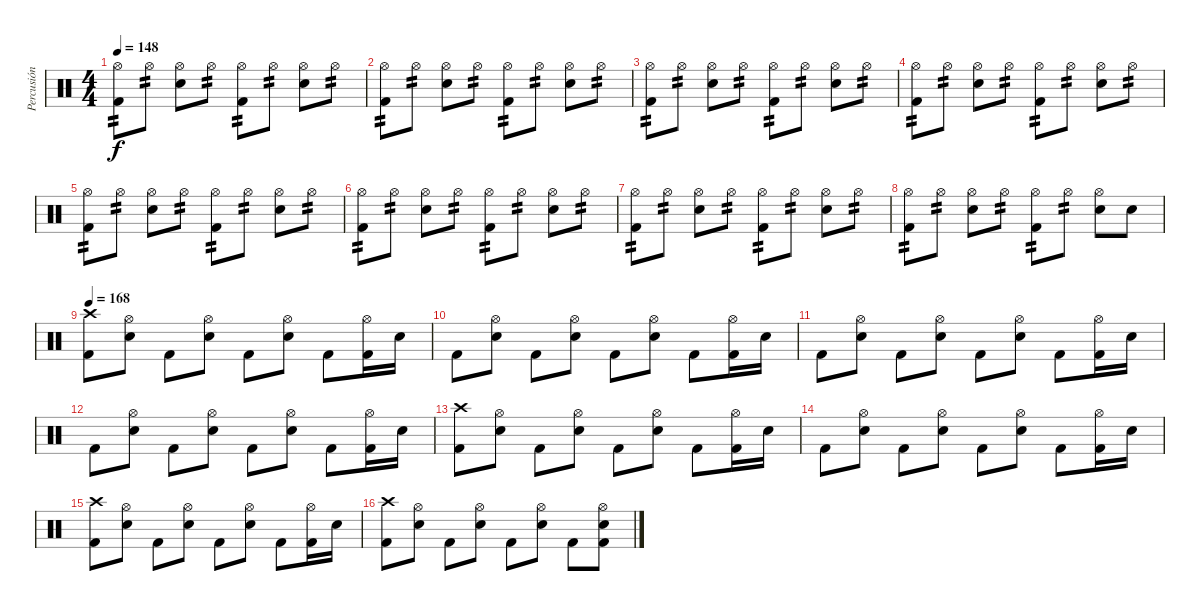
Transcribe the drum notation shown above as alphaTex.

\track ("Percusión" "Percusión") {instrument percussion}
\staff {score}
\articulation defaults
\ts (4 4)
\tempo 148
\clef neutral
\ks c
("Hi-Hat (open)" "Kick (hit) 2").8{tp 2 dy f} "Hi-Hat (open)".8{tp 2} ("Hi-Hat (open)" "Electric Snare (hit)").8 "Hi-Hat (open)".8{tp 2} ("Hi-Hat (open)" "Kick (hit) 2").8{tp 2} "Hi-Hat (open)".8{tp 2} ("Hi-Hat (open)" "Electric Snare (hit)").8 "Hi-Hat (open)".8{tp 2} |
("Hi-Hat (open)" "Kick (hit) 2").8{tp 2} "Hi-Hat (open)".8{tp 2} ("Hi-Hat (open)" "Electric Snare (hit)").8 "Hi-Hat (open)".8{tp 2} ("Hi-Hat (open)" "Kick (hit) 2").8{tp 2} "Hi-Hat (open)".8{tp 2} ("Hi-Hat (open)" "Electric Snare (hit)").8 "Hi-Hat (open)".8{tp 2} |
("Hi-Hat (open)" "Kick (hit) 2").8{tp 2} "Hi-Hat (open)".8{tp 2} ("Hi-Hat (open)" "Electric Snare (hit)").8 "Hi-Hat (open)".8{tp 2} ("Hi-Hat (open)" "Kick (hit) 2").8{tp 2} "Hi-Hat (open)".8{tp 2} ("Hi-Hat (open)" "Electric Snare (hit)").8 "Hi-Hat (open)".8{tp 2} |
("Hi-Hat (open)" "Kick (hit) 2").8{tp 2} "Hi-Hat (open)".8{tp 2} ("Hi-Hat (open)" "Electric Snare (hit)").8 "Hi-Hat (open)".8{tp 2} ("Hi-Hat (open)" "Kick (hit) 2").8{tp 2} "Hi-Hat (open)".8{tp 2} ("Hi-Hat (open)" "Electric Snare (hit)").8 "Hi-Hat (open)".8{tp 2} |
("Hi-Hat (open)" "Kick (hit) 2").8{tp 2} "Hi-Hat (open)".8{tp 2} ("Hi-Hat (open)" "Electric Snare (hit)").8 "Hi-Hat (open)".8{tp 2} ("Hi-Hat (open)" "Kick (hit) 2").8{tp 2} "Hi-Hat (open)".8{tp 2} ("Hi-Hat (open)" "Electric Snare (hit)").8 "Hi-Hat (open)".8{tp 2} |
("Hi-Hat (open)" "Kick (hit) 2").8{tp 2} "Hi-Hat (open)".8{tp 2} ("Hi-Hat (open)" "Electric Snare (hit)").8 "Hi-Hat (open)".8{tp 2} ("Hi-Hat (open)" "Kick (hit) 2").8{tp 2} "Hi-Hat (open)".8{tp 2} ("Hi-Hat (open)" "Electric Snare (hit)").8 "Hi-Hat (open)".8{tp 2} |
("Hi-Hat (open)" "Kick (hit) 2").8{tp 2} "Hi-Hat (open)".8{tp 2} ("Hi-Hat (open)" "Electric Snare (hit)").8 "Hi-Hat (open)".8{tp 2} ("Hi-Hat (open)" "Kick (hit) 2").8{tp 2} "Hi-Hat (open)".8{tp 2} ("Hi-Hat (open)" "Electric Snare (hit)").8 "Hi-Hat (open)".8{tp 2} |
("Hi-Hat (open)" "Kick (hit) 2").8{tp 2} "Hi-Hat (open)".8{tp 2} ("Hi-Hat (open)" "Electric Snare (hit)").8 "Hi-Hat (open)".8{tp 2} ("Hi-Hat (open)" "Kick (hit) 2").8{tp 2} "Hi-Hat (open)".8{tp 2} ("Hi-Hat (open)" "Electric Snare (hit)").8 "Electric Snare (hit)".8 |
\tempo 168
("Crash high (hit)" "Kick (hit) 2").8 ("Hi-Hat (open)" "Electric Snare (hit)").8 "Kick (hit) 2".8 ("Hi-Hat (open)" "Electric Snare (hit)").8 "Kick (hit) 2".8 ("Hi-Hat (open)" "Electric Snare (hit)").8 "Kick (hit) 2".8 ("Hi-Hat (open)" "Kick (hit) 2").16 "Electric Snare (hit)".16 |
"Kick (hit) 2".8 ("Hi-Hat (open)" "Electric Snare (hit)").8 "Kick (hit) 2".8 ("Hi-Hat (open)" "Electric Snare (hit)").8 "Kick (hit) 2".8 ("Hi-Hat (open)" "Electric Snare (hit)").8 "Kick (hit) 2".8 ("Hi-Hat (open)" "Kick (hit) 2").16 "Electric Snare (hit)".16 |
"Kick (hit) 2".8 ("Hi-Hat (open)" "Electric Snare (hit)").8 "Kick (hit) 2".8 ("Hi-Hat (open)" "Electric Snare (hit)").8 "Kick (hit) 2".8 ("Hi-Hat (open)" "Electric Snare (hit)").8 "Kick (hit) 2".8 ("Hi-Hat (open)" "Kick (hit) 2").16 "Electric Snare (hit)".16 |
"Kick (hit) 2".8 ("Hi-Hat (open)" "Electric Snare (hit)").8 "Kick (hit) 2".8 ("Hi-Hat (open)" "Electric Snare (hit)").8 "Kick (hit) 2".8 ("Hi-Hat (open)" "Electric Snare (hit)").8 "Kick (hit) 2".8 ("Hi-Hat (open)" "Kick (hit) 2").16 "Electric Snare (hit)".16 |
("Crash high (hit)" "Kick (hit) 2").8 ("Hi-Hat (open)" "Electric Snare (hit)").8 "Kick (hit) 2".8 ("Hi-Hat (open)" "Electric Snare (hit)").8 "Kick (hit) 2".8 ("Hi-Hat (open)" "Electric Snare (hit)").8 "Kick (hit) 2".8 ("Hi-Hat (open)" "Kick (hit) 2").16 "Electric Snare (hit)".16 |
"Kick (hit) 2".8 ("Hi-Hat (open)" "Electric Snare (hit)").8 "Kick (hit) 2".8 ("Hi-Hat (open)" "Electric Snare (hit)").8 "Kick (hit) 2".8 ("Hi-Hat (open)" "Electric Snare (hit)").8 "Kick (hit) 2".8 ("Hi-Hat (open)" "Kick (hit) 2").16 "Electric Snare (hit)".16 |
("Crash high (hit)" "Kick (hit) 2").8 ("Hi-Hat (open)" "Electric Snare (hit)").8 "Kick (hit) 2".8 ("Hi-Hat (open)" "Electric Snare (hit)").8 "Kick (hit) 2".8 ("Hi-Hat (open)" "Electric Snare (hit)").8 "Kick (hit) 2".8 ("Hi-Hat (open)" "Kick (hit) 2").16 "Electric Snare (hit)".16 |
("Crash high (hit)" "Kick (hit) 2").8 ("Hi-Hat (open)" "Electric Snare (hit)").8 "Kick (hit) 2".8 ("Hi-Hat (open)" "Electric Snare (hit)").8 "Kick (hit) 2".8 ("Hi-Hat (open)" "Electric Snare (hit)").8 "Kick (hit) 2".8 ("Hi-Hat (open)" "Electric Snare (hit)" "Kick (hit) 2").8
